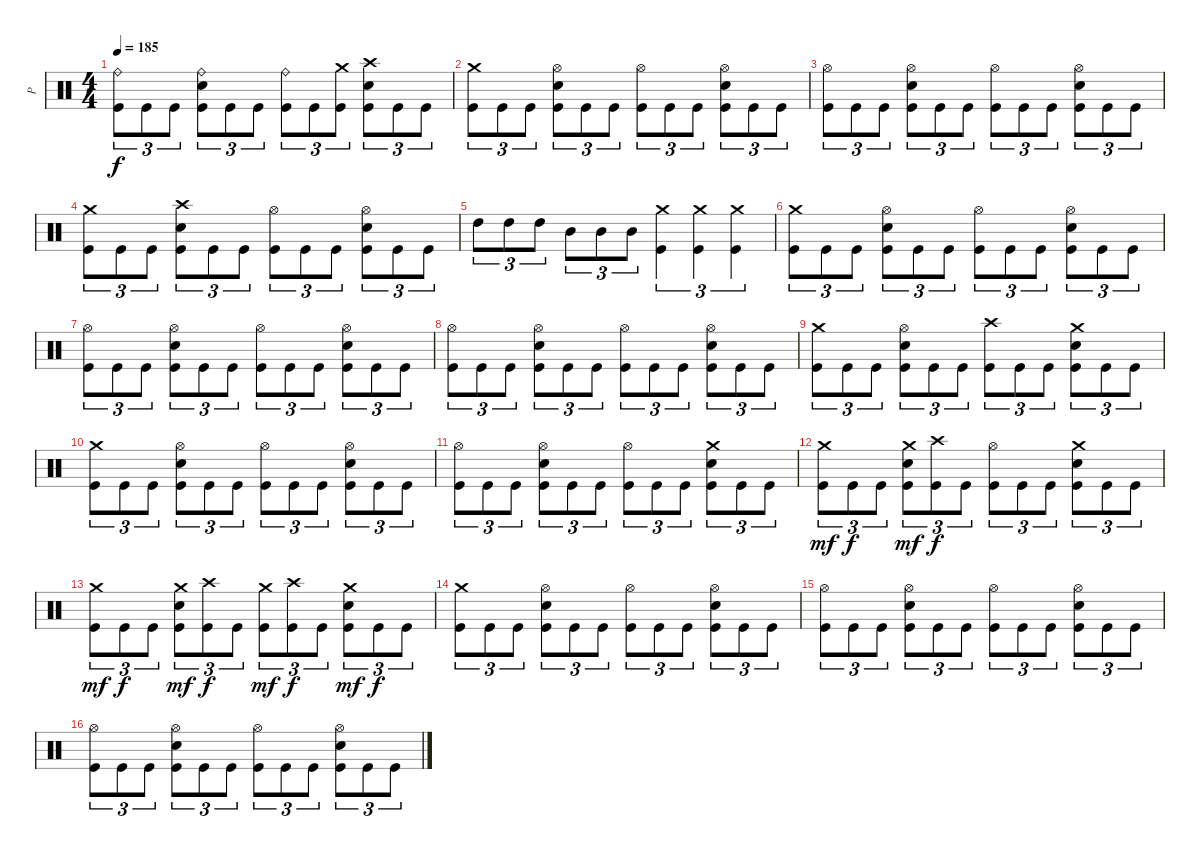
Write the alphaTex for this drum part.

\track ("P" "P") {instrument percussion}
\staff {score}
\articulation defaults
\ts (4 4)
\tempo 185
\clef neutral
\ks c
("Ride (bell)" "Kick (hit)").8{tu (3 2) dy f} "Kick (hit)".8{tu (3 2)} "Kick (hit)".8{tu (3 2)} ("Ride (bell)" "Electric Snare (hit)" "Kick (hit)").8{tu (3 2)} "Kick (hit)".8{tu (3 2)} "Kick (hit)".8{tu (3 2)} ("Ride (bell)" "Kick (hit)").8{tu (3 2)} "Kick (hit)".8{tu (3 2)} ("Crash medium (hit)" "Kick (hit)").8{tu (3 2)} ("Crash high (hit)" "Electric Snare (hit)" "Kick (hit)").8{tu (3 2)} "Kick (hit)".8{tu (3 2)} "Kick (hit)".8{tu (3 2)} |
("Crash medium (hit)" "Kick (hit)").8{tu (3 2)} "Kick (hit)".8{tu (3 2)} "Kick (hit)".8{tu (3 2)} ("Hi-Hat (open)" "Electric Snare (hit)" "Kick (hit)").8{tu (3 2)} "Kick (hit)".8{tu (3 2)} "Kick (hit)".8{tu (3 2)} ("Hi-Hat (open)" "Kick (hit)").8{tu (3 2)} "Kick (hit)".8{tu (3 2)} "Kick (hit)".8{tu (3 2)} ("Hi-Hat (open)" "Electric Snare (hit)" "Kick (hit)").8{tu (3 2)} "Kick (hit)".8{tu (3 2)} "Kick (hit)".8{tu (3 2)} |
("Hi-Hat (open)" "Kick (hit)").8{tu (3 2)} "Kick (hit)".8{tu (3 2)} "Kick (hit)".8{tu (3 2)} ("Hi-Hat (open)" "Electric Snare (hit)" "Kick (hit)").8{tu (3 2)} "Kick (hit)".8{tu (3 2)} "Kick (hit)".8{tu (3 2)} ("Hi-Hat (open)" "Kick (hit)").8{tu (3 2)} "Kick (hit)".8{tu (3 2)} "Kick (hit)".8{tu (3 2)} ("Hi-Hat (open)" "Electric Snare (hit)" "Kick (hit)").8{tu (3 2)} "Kick (hit)".8{tu (3 2)} "Kick (hit)".8{tu (3 2)} |
("Crash medium (hit)" "Kick (hit)").8{tu (3 2)} "Kick (hit)".8{tu (3 2)} "Kick (hit)".8{tu (3 2)} ("Crash high (hit)" "Electric Snare (hit)" "Kick (hit)").8{tu (3 2)} "Kick (hit)".8{tu (3 2)} "Kick (hit)".8{tu (3 2)} ("Hi-Hat (open)" "Kick (hit)").8{tu (3 2)} "Kick (hit)".8{tu (3 2)} "Kick (hit)".8{tu (3 2)} ("Hi-Hat (open)" "Electric Snare (hit)" "Kick (hit)").8{tu (3 2)} "Kick (hit)".8{tu (3 2)} "Kick (hit)".8{tu (3 2)} |
"High Tom (hit)".8{tu (3 2)} "High Tom (hit)".8{tu (3 2)} "High Tom (hit)".8{tu (3 2)} "Mid Tom (hit)".8{tu (3 2)} "Mid Tom (hit)".8{tu (3 2)} "Mid Tom (hit)".8{tu (3 2)} ("Crash medium (hit)" "Kick (hit)").4{tu (3 2)} ("Crash medium (hit)" "Kick (hit)").4{tu (3 2)} ("Crash medium (hit)" "Kick (hit)").4{tu (3 2)} |
("Crash medium (hit)" "Kick (hit)").8{tu (3 2)} "Kick (hit)".8{tu (3 2)} "Kick (hit)".8{tu (3 2)} ("Hi-Hat (open)" "Electric Snare (hit)" "Kick (hit)").8{tu (3 2)} "Kick (hit)".8{tu (3 2)} "Kick (hit)".8{tu (3 2)} ("Hi-Hat (open)" "Kick (hit)").8{tu (3 2)} "Kick (hit)".8{tu (3 2)} "Kick (hit)".8{tu (3 2)} ("Hi-Hat (open)" "Electric Snare (hit)" "Kick (hit)").8{tu (3 2)} "Kick (hit)".8{tu (3 2)} "Kick (hit)".8{tu (3 2)} |
("Hi-Hat (open)" "Kick (hit)").8{tu (3 2)} "Kick (hit)".8{tu (3 2)} "Kick (hit)".8{tu (3 2)} ("Hi-Hat (open)" "Electric Snare (hit)" "Kick (hit)").8{tu (3 2)} "Kick (hit)".8{tu (3 2)} "Kick (hit)".8{tu (3 2)} ("Hi-Hat (open)" "Kick (hit)").8{tu (3 2)} "Kick (hit)".8{tu (3 2)} "Kick (hit)".8{tu (3 2)} ("Hi-Hat (open)" "Electric Snare (hit)" "Kick (hit)").8{tu (3 2)} "Kick (hit)".8{tu (3 2)} "Kick (hit)".8{tu (3 2)} |
("Hi-Hat (open)" "Kick (hit)").8{tu (3 2)} "Kick (hit)".8{tu (3 2)} "Kick (hit)".8{tu (3 2)} ("Hi-Hat (open)" "Electric Snare (hit)" "Kick (hit)").8{tu (3 2)} "Kick (hit)".8{tu (3 2)} "Kick (hit)".8{tu (3 2)} ("Hi-Hat (open)" "Kick (hit)").8{tu (3 2)} "Kick (hit)".8{tu (3 2)} "Kick (hit)".8{tu (3 2)} ("Hi-Hat (open)" "Electric Snare (hit)" "Kick (hit)").8{tu (3 2)} "Kick (hit)".8{tu (3 2)} "Kick (hit)".8{tu (3 2)} |
("Crash medium (hit)" "Kick (hit)").8{tu (3 2)} "Kick (hit)".8{tu (3 2)} "Kick (hit)".8{tu (3 2)} ("Hi-Hat (open)" "Electric Snare (hit)" "Kick (hit)").8{tu (3 2)} "Kick (hit)".8{tu (3 2)} "Kick (hit)".8{tu (3 2)} ("Crash high (hit)" "Kick (hit)").8{tu (3 2)} "Kick (hit)".8{tu (3 2)} "Kick (hit)".8{tu (3 2)} ("Crash medium (hit)" "Electric Snare (hit)" "Kick (hit)").8{tu (3 2)} "Kick (hit)".8{tu (3 2)} "Kick (hit)".8{tu (3 2)} |
("Crash medium (hit)" "Kick (hit)").8{tu (3 2)} "Kick (hit)".8{tu (3 2)} "Kick (hit)".8{tu (3 2)} ("Hi-Hat (open)" "Electric Snare (hit)" "Kick (hit)").8{tu (3 2)} "Kick (hit)".8{tu (3 2)} "Kick (hit)".8{tu (3 2)} ("Hi-Hat (open)" "Kick (hit)").8{tu (3 2)} "Kick (hit)".8{tu (3 2)} "Kick (hit)".8{tu (3 2)} ("Hi-Hat (open)" "Electric Snare (hit)" "Kick (hit)").8{tu (3 2)} "Kick (hit)".8{tu (3 2)} "Kick (hit)".8{tu (3 2)} |
("Hi-Hat (open)" "Kick (hit)").8{tu (3 2)} "Kick (hit)".8{tu (3 2)} "Kick (hit)".8{tu (3 2)} ("Hi-Hat (open)" "Electric Snare (hit)" "Kick (hit)").8{tu (3 2)} "Kick (hit)".8{tu (3 2)} "Kick (hit)".8{tu (3 2)} ("Hi-Hat (open)" "Kick (hit)").8{tu (3 2)} "Kick (hit)".8{tu (3 2)} "Kick (hit)".8{tu (3 2)} ("Crash medium (hit)" "Electric Snare (hit)" "Kick (hit)").8{tu (3 2)} "Kick (hit)".8{tu (3 2)} "Kick (hit)".8{tu (3 2)} |
("Crash medium (hit)" "Kick (hit)").8{tu (3 2) dy mf} "Kick (hit)".8{tu (3 2) dy f} "Kick (hit)".8{tu (3 2)} ("Crash medium (hit)" "Electric Snare (hit)" "Kick (hit)").8{tu (3 2) dy mf} ("Crash high (hit)" "Kick (hit)").8{tu (3 2) dy f} "Kick (hit)".8{tu (3 2)} ("Hi-Hat (open)" "Kick (hit)").8{tu (3 2)} "Kick (hit)".8{tu (3 2)} "Kick (hit)".8{tu (3 2)} ("Crash medium (hit)" "Electric Snare (hit)" "Kick (hit)").8{tu (3 2)} "Kick (hit)".8{tu (3 2)} "Kick (hit)".8{tu (3 2)} |
("Crash medium (hit)" "Kick (hit)").8{tu (3 2) dy mf} "Kick (hit)".8{tu (3 2) dy f} "Kick (hit)".8{tu (3 2)} ("Crash medium (hit)" "Electric Snare (hit)" "Kick (hit)").8{tu (3 2) dy mf} ("Crash high (hit)" "Kick (hit)").8{tu (3 2) dy f} "Kick (hit)".8{tu (3 2)} ("Crash medium (hit)" "Kick (hit)").8{tu (3 2) dy mf} ("Crash high (hit)" "Kick (hit)").8{tu (3 2) dy f} "Kick (hit)".8{tu (3 2)} ("Crash medium (hit)" "Electric Snare (hit)" "Kick (hit)").8{tu (3 2) dy mf} "Kick (hit)".8{tu (3 2) dy f} "Kick (hit)".8{tu (3 2)} |
("Crash medium (hit)" "Kick (hit)").8{tu (3 2)} "Kick (hit)".8{tu (3 2)} "Kick (hit)".8{tu (3 2)} ("Hi-Hat (open)" "Electric Snare (hit)" "Kick (hit)").8{tu (3 2)} "Kick (hit)".8{tu (3 2)} "Kick (hit)".8{tu (3 2)} ("Hi-Hat (open)" "Kick (hit)").8{tu (3 2)} "Kick (hit)".8{tu (3 2)} "Kick (hit)".8{tu (3 2)} ("Hi-Hat (open)" "Electric Snare (hit)" "Kick (hit)").8{tu (3 2)} "Kick (hit)".8{tu (3 2)} "Kick (hit)".8{tu (3 2)} |
("Hi-Hat (open)" "Kick (hit)").8{tu (3 2)} "Kick (hit)".8{tu (3 2)} "Kick (hit)".8{tu (3 2)} ("Hi-Hat (open)" "Electric Snare (hit)" "Kick (hit)").8{tu (3 2)} "Kick (hit)".8{tu (3 2)} "Kick (hit)".8{tu (3 2)} ("Hi-Hat (open)" "Kick (hit)").8{tu (3 2)} "Kick (hit)".8{tu (3 2)} "Kick (hit)".8{tu (3 2)} ("Hi-Hat (open)" "Electric Snare (hit)" "Kick (hit)").8{tu (3 2)} "Kick (hit)".8{tu (3 2)} "Kick (hit)".8{tu (3 2)} |
("Hi-Hat (open)" "Kick (hit)").8{tu (3 2)} "Kick (hit)".8{tu (3 2)} "Kick (hit)".8{tu (3 2)} ("Hi-Hat (open)" "Electric Snare (hit)" "Kick (hit)").8{tu (3 2)} "Kick (hit)".8{tu (3 2)} "Kick (hit)".8{tu (3 2)} ("Hi-Hat (open)" "Kick (hit)").8{tu (3 2)} "Kick (hit)".8{tu (3 2)} "Kick (hit)".8{tu (3 2)} ("Hi-Hat (open)" "Electric Snare (hit)" "Kick (hit)").8{tu (3 2)} "Kick (hit)".8{tu (3 2)} "Kick (hit)".8{tu (3 2)}
